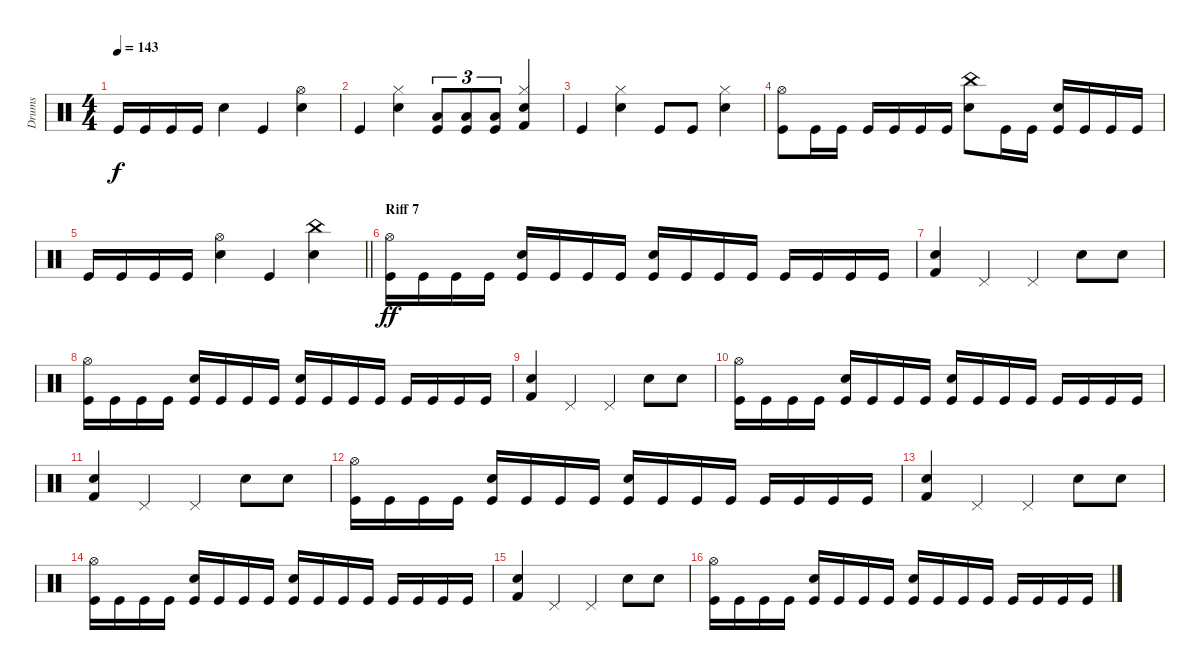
\track ("Drums" "Drums") {instrument percussion}
\staff {score}
\articulation defaults
\ts (4 4)
\tempo 143
\clef neutral
\ks c "Kick (hit)".16{dy f} "Kick (hit)".16 "Kick (hit)".16 "Kick (hit)".16 "Snare (hit) 2".4 "Kick (hit)".4
("Hi-Hat (open)" "Snare (hit) 2").4 |
"Kick (hit)".4 ("Hi-Hat (closed)" "Snare (hit) 2").4 ("Low Floor Tom (hit)" "Kick (hit)").8{tu (3 2)} ("Low Floor Tom (hit)" "Kick (hit)").8{tu (3 2)} ("Low Floor Tom (hit)" "Kick (hit)").8{tu (3 2)} ("Hi-Hat (closed)" "Snare (hit) 2" "Kick (hit) 2").4 |
"Kick (hit)".4 ("Hi-Hat (closed)" "Snare (hit) 2").4 "Kick (hit)".8 "Kick (hit)".8 ("Hi-Hat (closed)" "Snare (hit) 2").4 |
("Hi-Hat (open)" "Kick (hit)").8 "Kick (hit)".16 "Kick (hit)".16 "Kick (hit)".16 "Kick (hit)".16 "Kick (hit)".16 "Kick (hit)".16 ("China (hit)" "Snare (hit) 2").8 "Kick (hit)".16 "Kick (hit)".16 ("Snare (hit) 2" "Kick (hit)").16 "Kick (hit)".16 "Kick (hit)".16 "Kick (hit)".16 |
\barLineRight lightlight "Kick (hit)".16 "Kick (hit)".16 "Kick (hit)".16 "Kick (hit)".16
("Hi-Hat (open)" "Snare (hit) 2").4 "Kick (hit)".4 ("China (hit)" "Snare (hit) 2").4 |
\section ("" "Riff 7")
("Hi-Hat (open)" "Kick (hit)").16{dy ff} "Kick (hit)".16 "Kick (hit)".16 "Kick (hit)".16 ("Snare (hit) 2" "Kick (hit)").16 "Kick (hit)".16 "Kick (hit)".16 "Kick (hit)".16 ("Snare (hit) 2" "Kick (hit)").16 "Kick (hit)".16 "Kick (hit)".16 "Kick (hit)".16 "Kick (hit)".16 "Kick (hit)".16 "Kick (hit)".16 "Kick (hit)".16 |
("Kick (hit) 2" "Snare (hit) 2").4 "Pedal Hi-Hat (hit)".4 "Pedal Hi-Hat (hit)".4 "Snare (hit) 2".8 "Snare (hit) 2".8 |
("Hi-Hat (open)" "Kick (hit)").16 "Kick (hit)".16 "Kick (hit)".16 "Kick (hit)".16 ("Snare (hit) 2" "Kick (hit)").16 "Kick (hit)".16 "Kick (hit)".16 "Kick (hit)".16 ("Snare (hit) 2" "Kick (hit)").16 "Kick (hit)".16 "Kick (hit)".16 "Kick (hit)".16 "Kick (hit)".16 "Kick (hit)".16 "Kick (hit)".16 "Kick (hit)".16 |
("Kick (hit) 2" "Snare (hit) 2").4 "Pedal Hi-Hat (hit)".4 "Pedal Hi-Hat (hit)".4 "Snare (hit) 2".8 "Snare (hit) 2".8 |
("Hi-Hat (open)" "Kick (hit)").16 "Kick (hit)".16 "Kick (hit)".16 "Kick (hit)".16 ("Snare (hit) 2" "Kick (hit)").16 "Kick (hit)".16 "Kick (hit)".16 "Kick (hit)".16 ("Snare (hit) 2" "Kick (hit)").16 "Kick (hit)".16 "Kick (hit)".16 "Kick (hit)".16 "Kick (hit)".16 "Kick (hit)".16 "Kick (hit)".16 "Kick (hit)".16 |
("Kick (hit) 2" "Snare (hit) 2").4 "Pedal Hi-Hat (hit)".4 "Pedal Hi-Hat (hit)".4 "Snare (hit) 2".8 "Snare (hit) 2".8 |
("Hi-Hat (open)" "Kick (hit)").16 "Kick (hit)".16 "Kick (hit)".16 "Kick (hit)".16 ("Snare (hit) 2" "Kick (hit)").16 "Kick (hit)".16 "Kick (hit)".16 "Kick (hit)".16 ("Snare (hit) 2" "Kick (hit)").16 "Kick (hit)".16 "Kick (hit)".16 "Kick (hit)".16 "Kick (hit)".16 "Kick (hit)".16 "Kick (hit)".16 "Kick (hit)".16 |
("Kick (hit) 2" "Snare (hit) 2").4 "Pedal Hi-Hat (hit)".4 "Pedal Hi-Hat (hit)".4 "Snare (hit) 2".8 "Snare (hit) 2".8 |
("Hi-Hat (open)" "Kick (hit)").16 "Kick (hit)".16 "Kick (hit)".16 "Kick (hit)".16 ("Snare (hit) 2" "Kick (hit)").16 "Kick (hit)".16 "Kick (hit)".16 "Kick (hit)".16 ("Snare (hit) 2" "Kick (hit)").16 "Kick (hit)".16 "Kick (hit)".16 "Kick (hit)".16 "Kick (hit)".16 "Kick (hit)".16 "Kick (hit)".16 "Kick (hit)".16 |
("Kick (hit) 2" "Snare (hit) 2").4 "Pedal Hi-Hat (hit)".4 "Pedal Hi-Hat (hit)".4 "Snare (hit) 2".8 "Snare (hit) 2".8 |
("Hi-Hat (open)" "Kick (hit)").16 "Kick (hit)".16 "Kick (hit)".16 "Kick (hit)".16 ("Snare (hit) 2" "Kick (hit)").16 "Kick (hit)".16 "Kick (hit)".16 "Kick (hit)".16 ("Snare (hit) 2" "Kick (hit)").16 "Kick (hit)".16 "Kick (hit)".16 "Kick (hit)".16 "Kick (hit)".16 "Kick (hit)".16 "Kick (hit)".16 "Kick (hit)".16
